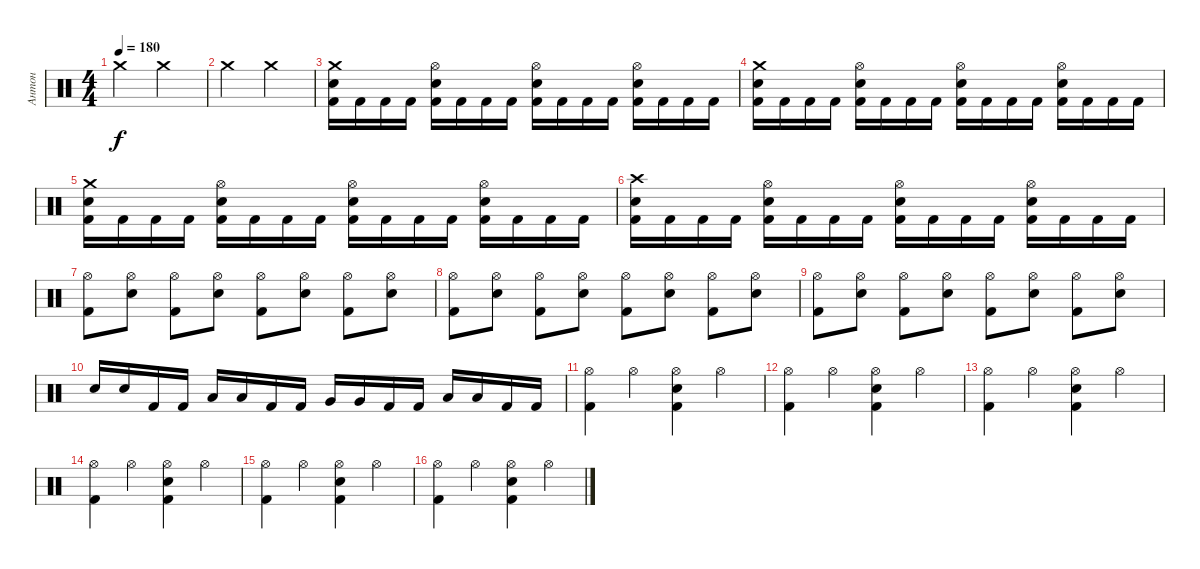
\track ("Антон" "Антон") {instrument percussion}
\staff {score}
\articulation defaults
\ts (4 4)
\tempo 180
\clef neutral
\ks c "Crash medium (hit)".2{dy f} "Crash medium (hit)".2
|
"Crash medium (hit)".2 "Crash medium (hit)".2 |
("Crash medium (hit)" "Electric Snare (hit)" "Kick (hit) 2").16 "Kick (hit) 2".16 "Kick (hit) 2".16 "Kick (hit) 2".16 ("Hi-Hat (open)" "Electric Snare (hit)" "Kick (hit) 2").16 "Kick (hit) 2".16 "Kick (hit) 2".16 "Kick (hit) 2".16 ("Hi-Hat (open)" "Electric Snare (hit)" "Kick (hit) 2").16 "Kick (hit) 2".16 "Kick (hit) 2".16 "Kick (hit) 2".16 ("Hi-Hat (open)" "Electric Snare (hit)" "Kick (hit) 2").16 "Kick (hit) 2".16 "Kick (hit) 2".16 "Kick (hit) 2".16 |
("Crash medium (hit)" "Electric Snare (hit)" "Kick (hit) 2").16 "Kick (hit) 2".16 "Kick (hit) 2".16 "Kick (hit) 2".16 ("Hi-Hat (open)" "Electric Snare (hit)" "Kick (hit) 2").16 "Kick (hit) 2".16 "Kick (hit) 2".16 "Kick (hit) 2".16 ("Hi-Hat (open)" "Electric Snare (hit)" "Kick (hit) 2").16 "Kick (hit) 2".16 "Kick (hit) 2".16 "Kick (hit) 2".16 ("Hi-Hat (open)" "Electric Snare (hit)" "Kick (hit) 2").16 "Kick (hit) 2".16 "Kick (hit) 2".16 "Kick (hit) 2".16 |
("Crash medium (hit)" "Electric Snare (hit)" "Kick (hit) 2").16 "Kick (hit) 2".16 "Kick (hit) 2".16 "Kick (hit) 2".16 ("Hi-Hat (open)" "Electric Snare (hit)" "Kick (hit) 2").16 "Kick (hit) 2".16 "Kick (hit) 2".16 "Kick (hit) 2".16 ("Hi-Hat (open)" "Electric Snare (hit)" "Kick (hit) 2").16 "Kick (hit) 2".16 "Kick (hit) 2".16 "Kick (hit) 2".16 ("Hi-Hat (open)" "Electric Snare (hit)" "Kick (hit) 2").16 "Kick (hit) 2".16 "Kick (hit) 2".16 "Kick (hit) 2".16 |
("Crash high (hit)" "Electric Snare (hit)" "Kick (hit) 2").16 "Kick (hit) 2".16 "Kick (hit) 2".16 "Kick (hit) 2".16 ("Hi-Hat (open)" "Electric Snare (hit)" "Kick (hit) 2").16 "Kick (hit) 2".16 "Kick (hit) 2".16 "Kick (hit) 2".16 ("Hi-Hat (open)" "Electric Snare (hit)" "Kick (hit) 2").16 "Kick (hit) 2".16 "Kick (hit) 2".16 "Kick (hit) 2".16 ("Hi-Hat (open)" "Electric Snare (hit)" "Kick (hit) 2").16 "Kick (hit) 2".16 "Kick (hit) 2".16 "Kick (hit) 2".16 |
("Hi-Hat (open)" "Kick (hit) 2").8 ("Hi-Hat (open)" "Electric Snare (hit)").8 ("Hi-Hat (open)" "Kick (hit) 2").8 ("Hi-Hat (open)" "Electric Snare (hit)").8 ("Hi-Hat (open)" "Kick (hit) 2").8 ("Hi-Hat (open)" "Electric Snare (hit)").8 ("Hi-Hat (open)" "Kick (hit) 2").8 ("Hi-Hat (open)" "Electric Snare (hit)").8 |
("Hi-Hat (open)" "Kick (hit) 2").8 ("Hi-Hat (open)" "Electric Snare (hit)").8 ("Hi-Hat (open)" "Kick (hit) 2").8 ("Hi-Hat (open)" "Electric Snare (hit)").8 ("Hi-Hat (open)" "Kick (hit) 2").8 ("Hi-Hat (open)" "Electric Snare (hit)").8 ("Hi-Hat (open)" "Kick (hit) 2").8 ("Hi-Hat (open)" "Electric Snare (hit)").8 |
("Hi-Hat (open)" "Kick (hit) 2").8 ("Hi-Hat (open)" "Electric Snare (hit)").8 ("Hi-Hat (open)" "Kick (hit) 2").8 ("Hi-Hat (open)" "Electric Snare (hit)").8 ("Hi-Hat (open)" "Kick (hit) 2").8 ("Hi-Hat (open)" "Electric Snare (hit)").8 ("Hi-Hat (open)" "Kick (hit) 2").8 ("Hi-Hat (open)" "Electric Snare (hit)").8 |
"Electric Snare (hit)".16 "Electric Snare (hit)".16 "Kick (hit) 2".16 "Kick (hit) 2".16 "Low Tom (hit)".16 "Low Tom (hit)".16 "Kick (hit) 2".16 "Kick (hit) 2".16 "Very Low Tom (hit)".16 "Very Low Tom (hit)".16 "Kick (hit) 2".16 "Kick (hit) 2".16 "Low Floor Tom (hit)".16 "Low Floor Tom (hit)".16 "Kick (hit) 2".16 "Kick (hit) 2".16 |
("Hi-Hat (open)" "Kick (hit) 2").4 "Hi-Hat (open)".4 ("Hi-Hat (open)" "Electric Snare (hit)" "Kick (hit) 2").4 "Hi-Hat (open)".4 |
("Hi-Hat (open)" "Kick (hit) 2").4 "Hi-Hat (open)".4 ("Hi-Hat (open)" "Electric Snare (hit)" "Kick (hit) 2").4 "Hi-Hat (open)".4 |
("Hi-Hat (open)" "Kick (hit) 2").4 "Hi-Hat (open)".4 ("Hi-Hat (open)" "Electric Snare (hit)" "Kick (hit) 2").4 "Hi-Hat (open)".4 |
("Hi-Hat (open)" "Kick (hit) 2").4 "Hi-Hat (open)".4 ("Hi-Hat (open)" "Electric Snare (hit)" "Kick (hit) 2").4 "Hi-Hat (open)".4 |
("Hi-Hat (open)" "Kick (hit) 2").4 "Hi-Hat (open)".4 ("Hi-Hat (open)" "Electric Snare (hit)" "Kick (hit) 2").4 "Hi-Hat (open)".4 |
("Hi-Hat (open)" "Kick (hit) 2").4 "Hi-Hat (open)".4 ("Hi-Hat (open)" "Electric Snare (hit)" "Kick (hit) 2").4 "Hi-Hat (open)".4
